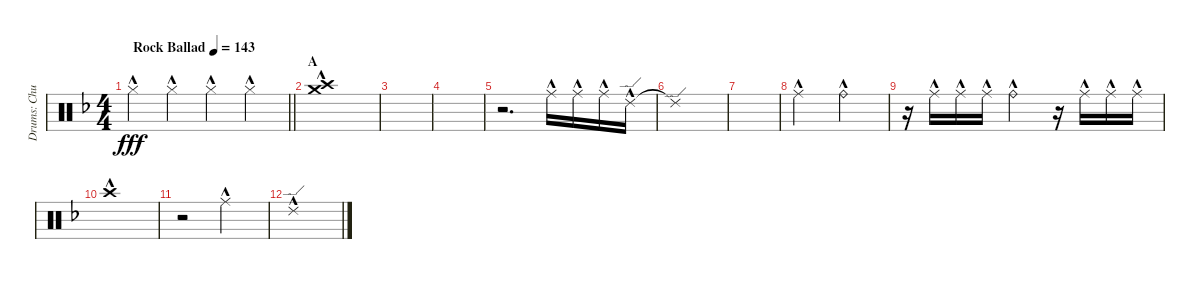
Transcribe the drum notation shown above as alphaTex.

\track ("Drums: Chuck" "Drums: Chu") {instrument percussion}
\staff {score}
\articulation defaults
\ts (4 4)
\tempo (143 "Rock Ballad")
\clef neutral
\barLineRight lightlight
\ks f "Hi-Hat (closed)"{hac}.4{dy fff} "Hi-Hat (closed)"{hac}.4 "Hi-Hat (closed)"{hac}.4 "Hi-Hat (closed)"{hac}.4
|
\section ("" "A")
("Crash high (hit)"{hac} "Crash medium (hit)"{hac}).1 |
|
|
r.2{d} "Ride (middle)"{hac}.16 "Ride (middle)"{hac}.16 "Ride (middle)"{hac}.16 "Ride (edge) 2"{hac}.16 |
"Ride (edge) 2"{t}.1 |
|
"Ride (middle)"{hac}.2 "Ride (bell)"{hac}.2 |
r.16 "Ride (middle)"{hac}.16 "Ride (middle)"{hac}.16 "Ride (middle)"{hac}.16 "Ride (bell)"{hac}.2 r.16 "Ride (middle)"{hac}.16 "Ride (middle)"{hac}.16 "Ride (middle)"{hac}.16 |
"Crash high (hit)"{hac}.1 |
r.2 "Ride (middle)"{hac}.2 |
"Ride (edge) 2"{hac}.1
